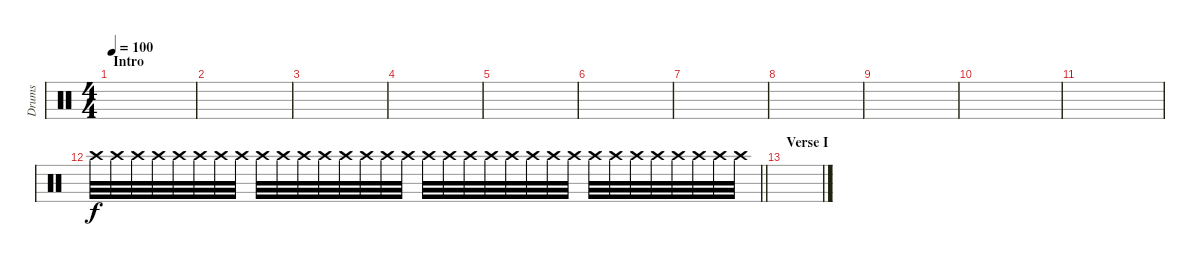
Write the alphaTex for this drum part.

\track ("Drums" "Drums") {instrument percussion}
\staff {score}
\articulation defaults
\ts (4 4)
\section ("" "Intro")
\tempo 100
\clef neutral
\ks c
|
|
|
|
|
|
|
|
|
|
|
\barLineRight lightlight "Crash high (hit)".32{volume 16} "Crash high (hit)".32 "Crash high (hit)".32 "Crash high (hit)".32 "Crash high (hit)".32 "Crash high (hit)".32 "Crash high (hit)".32 "Crash high (hit)".32 "Crash high (hit)".32 "Crash high (hit)".32 "Crash high (hit)".32 "Crash high (hit)".32 "Crash high (hit)".32 "Crash high (hit)".32 "Crash high (hit)".32 "Crash high (hit)".32 "Crash high (hit)".32 "Crash high (hit)".32 "Crash high (hit)".32 "Crash high (hit)".32 "Crash high (hit)".32 "Crash high (hit)".32 "Crash high (hit)".32 "Crash high (hit)".32 "Crash high (hit)".32 "Crash high (hit)".32 "Crash high (hit)".32 "Crash high (hit)".32 "Crash high (hit)".32 "Crash high (hit)".32 "Crash high (hit)".32 "Crash high (hit)".32
|
\section ("" "Verse I")
